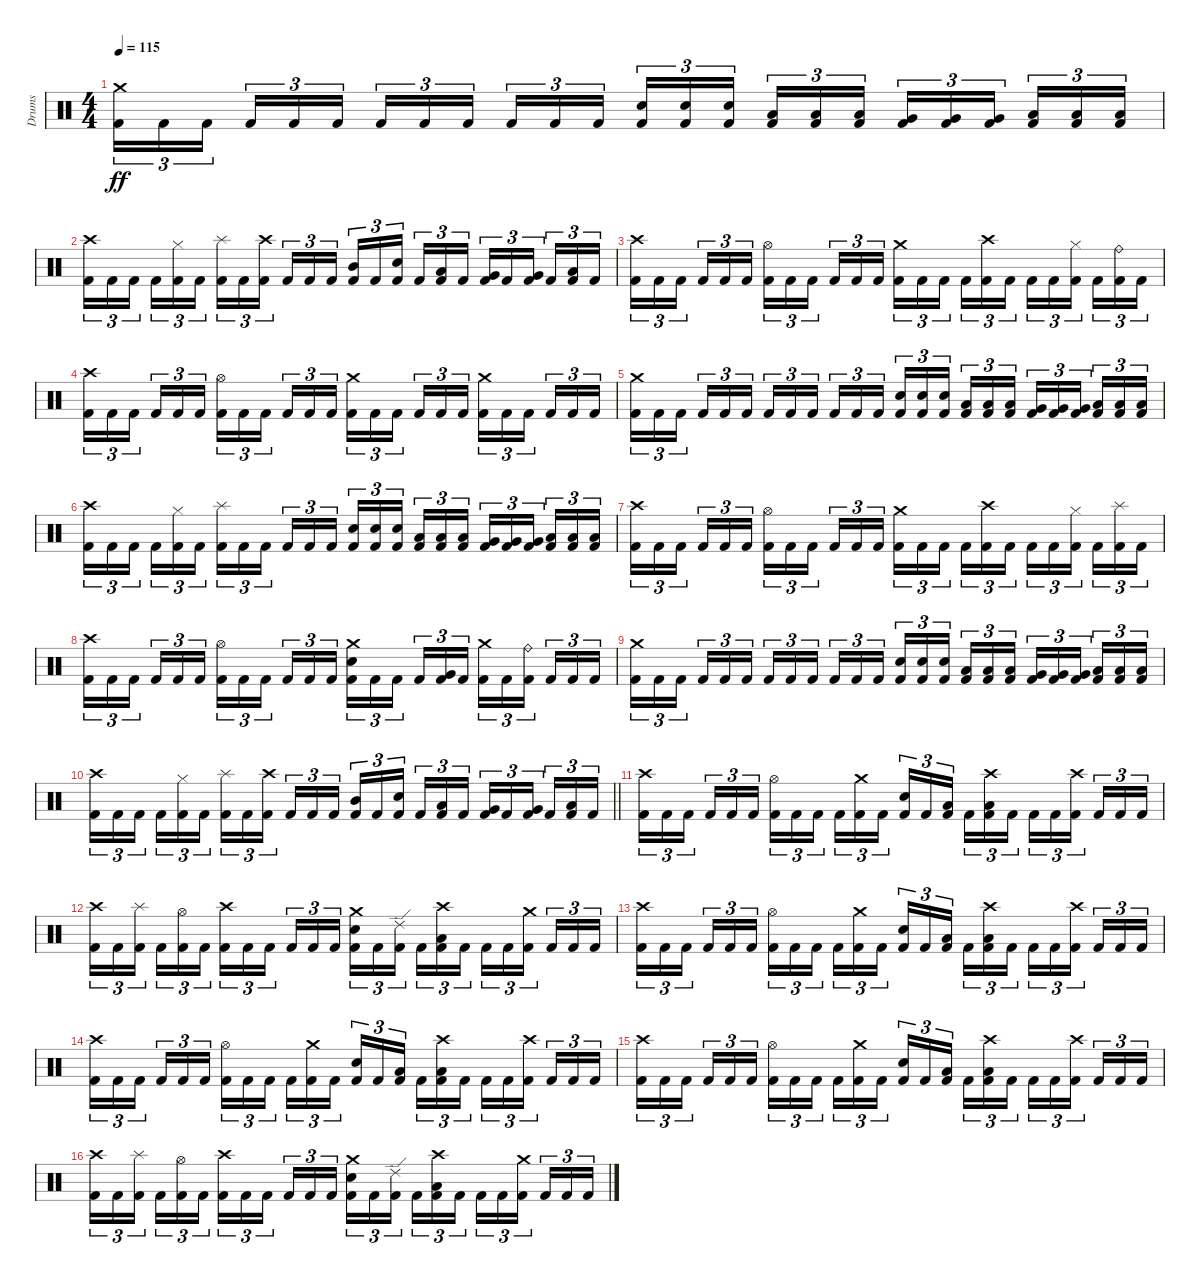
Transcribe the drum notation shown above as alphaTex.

\track ("Drums" "Drums") {instrument percussion}
\staff {score}
\articulation defaults
\ts (4 4)
\tempo 115
\clef neutral
\ks c
("Crash medium (hit)" "Kick (hit) 2").16{tu (3 2) dy ff} "Kick (hit) 2".16{tu (3 2)} "Kick (hit) 2".16{tu (3 2) beam splitsecondary} "Kick (hit) 2".16{tu (3 2)} "Kick (hit) 2".16{tu (3 2)} "Kick (hit) 2".16{tu (3 2)} "Kick (hit) 2".16{tu (3 2)} "Kick (hit) 2".16{tu (3 2)} "Kick (hit) 2".16{tu (3 2) beam splitsecondary} "Kick (hit) 2".16{tu (3 2)} "Kick (hit) 2".16{tu (3 2)} "Kick (hit) 2".16{tu (3 2)} ("Snare (hit) 2" "Kick (hit) 2").16{tu (3 2)} ("Snare (hit) 2" "Kick (hit) 2").16{tu (3 2)} ("Snare (hit) 2" "Kick (hit) 2").16{tu (3 2) beam splitsecondary} ("Low Tom (hit)" "Kick (hit) 2").16{tu (3 2)} ("Low Tom (hit)" "Kick (hit) 2").16{tu (3 2)} ("Low Tom (hit)" "Kick (hit) 2").16{tu (3 2)} ("Very Low Tom (hit)" "Kick (hit) 2").16{tu (3 2)} ("Very Low Tom (hit)" "Kick (hit) 2").16{tu (3 2)} ("Very Low Tom (hit)" "Kick (hit) 2").16{tu (3 2) beam splitsecondary} ("Low Floor Tom (hit)" "Kick (hit) 2").16{tu (3 2)} ("Low Floor Tom (hit)" "Kick (hit) 2").16{tu (3 2)} ("Low Floor Tom (hit)" "Kick (hit) 2").16{tu (3 2)} |
("Crash high (hit)" "Kick (hit) 2").16{tu (3 2)} "Kick (hit) 2".16{tu (3 2)} "Kick (hit) 2".16{tu (3 2) beam splitsecondary} "Kick (hit) 2".16{tu (3 2)} ("Hi-Hat (closed)" "Kick (hit) 2").16{tu (3 2)} "Kick (hit) 2".16{tu (3 2)} ("Splash (hit)" "Kick (hit) 2").16{tu (3 2)} "Kick (hit) 2".16{tu (3 2)} ("Crash high (hit)" "Kick (hit) 2").16{tu (3 2) beam splitsecondary} "Kick (hit) 2".16{tu (3 2)} "Kick (hit) 2".16{tu (3 2)} "Kick (hit) 2".16{tu (3 2)} ("Mid Tom (hit)" "Kick (hit) 2").16{tu (3 2)} "Kick (hit) 2".16{tu (3 2)} ("Snare (hit) 2" "Kick (hit) 2").16{tu (3 2) beam splitsecondary} "Kick (hit) 2".16{tu (3 2)} ("Low Tom (hit)" "Kick (hit) 2").16{tu (3 2)} "Kick (hit) 2".16{tu (3 2)} ("Very Low Tom (hit)" "Kick (hit) 2").16{tu (3 2)} "Kick (hit) 2".16{tu (3 2)} ("Very Low Tom (hit)" "Kick (hit) 2").16{tu (3 2) beam splitsecondary} "Kick (hit) 2".16{tu (3 2)} ("Low Floor Tom (hit)" "Kick (hit) 2").16{tu (3 2)} "Kick (hit) 2".16{tu (3 2)} |
("Crash high (hit)" "Kick (hit) 2").16{tu (3 2)} "Kick (hit) 2".16{tu (3 2)} "Kick (hit) 2".16{tu (3 2) beam splitsecondary} "Kick (hit) 2".16{tu (3 2)} "Kick (hit) 2".16{tu (3 2)} "Kick (hit) 2".16{tu (3 2)} ("Hi-Hat (open)" "Kick (hit) 2").16{tu (3 2)} "Kick (hit) 2".16{tu (3 2)} "Kick (hit) 2".16{tu (3 2) beam splitsecondary} "Kick (hit) 2".16{tu (3 2)} "Kick (hit) 2".16{tu (3 2)} "Kick (hit) 2".16{tu (3 2)} ("Crash medium (hit)" "Kick (hit) 2").16{tu (3 2)} "Kick (hit) 2".16{tu (3 2)} "Kick (hit) 2".16{tu (3 2) beam splitsecondary} "Kick (hit) 2".16{tu (3 2)} ("Crash high (hit)" "Kick (hit) 2").16{tu (3 2)} "Kick (hit) 2".16{tu (3 2)} "Kick (hit) 2".16{tu (3 2)} "Kick (hit) 2".16{tu (3 2)} ("Hi-Hat (closed)" "Kick (hit) 2").16{tu (3 2) beam splitsecondary} "Kick (hit) 2".16{tu (3 2)} ("Ride (bell)" "Kick (hit) 2").16{tu (3 2)} "Kick (hit) 2".16{tu (3 2)} |
("Crash high (hit)" "Kick (hit) 2").16{tu (3 2)} "Kick (hit) 2".16{tu (3 2)} "Kick (hit) 2".16{tu (3 2) beam splitsecondary} "Kick (hit) 2".16{tu (3 2)} "Kick (hit) 2".16{tu (3 2)} "Kick (hit) 2".16{tu (3 2)} ("Hi-Hat (open)" "Kick (hit) 2").16{tu (3 2)} "Kick (hit) 2".16{tu (3 2)} "Kick (hit) 2".16{tu (3 2) beam splitsecondary} "Kick (hit) 2".16{tu (3 2)} "Kick (hit) 2".16{tu (3 2)} "Kick (hit) 2".16{tu (3 2)} ("Crash medium (hit)" "Kick (hit) 2").16{tu (3 2)} "Kick (hit) 2".16{tu (3 2)} "Kick (hit) 2".16{tu (3 2) beam splitsecondary} "Kick (hit) 2".16{tu (3 2)} "Kick (hit) 2".16{tu (3 2)} "Kick (hit) 2".16{tu (3 2)} ("Crash medium (hit)" "Kick (hit) 2").16{tu (3 2)} "Kick (hit) 2".16{tu (3 2)} "Kick (hit) 2".16{tu (3 2) beam splitsecondary} "Kick (hit) 2".16{tu (3 2)} "Kick (hit) 2".16{tu (3 2)} "Kick (hit) 2".16{tu (3 2)} |
("Crash medium (hit)" "Kick (hit) 2").16{tu (3 2)} "Kick (hit) 2".16{tu (3 2)} "Kick (hit) 2".16{tu (3 2) beam splitsecondary} "Kick (hit) 2".16{tu (3 2)} "Kick (hit) 2".16{tu (3 2)} "Kick (hit) 2".16{tu (3 2)} "Kick (hit) 2".16{tu (3 2)} "Kick (hit) 2".16{tu (3 2)} "Kick (hit) 2".16{tu (3 2) beam splitsecondary} "Kick (hit) 2".16{tu (3 2)} "Kick (hit) 2".16{tu (3 2)} "Kick (hit) 2".16{tu (3 2)} ("Snare (hit) 2" "Kick (hit) 2").16{tu (3 2)} ("Snare (hit) 2" "Kick (hit) 2").16{tu (3 2)} ("Snare (hit) 2" "Kick (hit) 2").16{tu (3 2) beam splitsecondary} ("Low Tom (hit)" "Kick (hit) 2").16{tu (3 2)} ("Low Tom (hit)" "Kick (hit) 2").16{tu (3 2)} ("Low Tom (hit)" "Kick (hit) 2").16{tu (3 2)} ("Very Low Tom (hit)" "Kick (hit) 2").16{tu (3 2)} ("Very Low Tom (hit)" "Kick (hit) 2").16{tu (3 2)} ("Very Low Tom (hit)" "Kick (hit) 2").16{tu (3 2) beam splitsecondary} ("Low Floor Tom (hit)" "Kick (hit) 2").16{tu (3 2)} ("Low Floor Tom (hit)" "Kick (hit) 2").16{tu (3 2)} ("Low Floor Tom (hit)" "Kick (hit) 2").16{tu (3 2)} |
("Crash high (hit)" "Kick (hit) 2").16{tu (3 2)} "Kick (hit) 2".16{tu (3 2)} "Kick (hit) 2".16{tu (3 2) beam splitsecondary} "Kick (hit) 2".16{tu (3 2)} ("Hi-Hat (closed)" "Kick (hit) 2").16{tu (3 2)} "Kick (hit) 2".16{tu (3 2)} ("Splash (hit)" "Kick (hit) 2").16{tu (3 2)} "Kick (hit) 2".16{tu (3 2)} "Kick (hit) 2".16{tu (3 2) beam splitsecondary} "Kick (hit) 2".16{tu (3 2)} "Kick (hit) 2".16{tu (3 2)} "Kick (hit) 2".16{tu (3 2)} ("Snare (hit) 2" "Kick (hit) 2").16{tu (3 2)} ("Snare (hit) 2" "Kick (hit) 2").16{tu (3 2)} ("Snare (hit) 2" "Kick (hit) 2").16{tu (3 2) beam splitsecondary} ("Low Tom (hit)" "Kick (hit) 2").16{tu (3 2)} ("Low Tom (hit)" "Kick (hit) 2").16{tu (3 2)} ("Low Tom (hit)" "Kick (hit) 2").16{tu (3 2)} ("Very Low Tom (hit)" "Kick (hit) 2").16{tu (3 2)} ("Very Low Tom (hit)" "Kick (hit) 2").16{tu (3 2)} ("Very Low Tom (hit)" "Kick (hit) 2").16{tu (3 2) beam splitsecondary} ("Low Floor Tom (hit)" "Kick (hit) 2").16{tu (3 2)} ("Low Floor Tom (hit)" "Kick (hit) 2").16{tu (3 2)} ("Low Floor Tom (hit)" "Kick (hit) 2").16{tu (3 2)} |
("Crash high (hit)" "Kick (hit) 2").16{tu (3 2)} "Kick (hit) 2".16{tu (3 2)} "Kick (hit) 2".16{tu (3 2) beam splitsecondary} "Kick (hit) 2".16{tu (3 2)} "Kick (hit) 2".16{tu (3 2)} "Kick (hit) 2".16{tu (3 2)} ("Hi-Hat (open)" "Kick (hit) 2").16{tu (3 2)} "Kick (hit) 2".16{tu (3 2)} "Kick (hit) 2".16{tu (3 2) beam splitsecondary} "Kick (hit) 2".16{tu (3 2)} "Kick (hit) 2".16{tu (3 2)} "Kick (hit) 2".16{tu (3 2)} ("Crash medium (hit)" "Kick (hit) 2").16{tu (3 2)} "Kick (hit) 2".16{tu (3 2)} "Kick (hit) 2".16{tu (3 2) beam splitsecondary} "Kick (hit) 2".16{tu (3 2)} ("Crash high (hit)" "Kick (hit) 2").16{tu (3 2)} "Kick (hit) 2".16{tu (3 2)} "Kick (hit) 2".16{tu (3 2)} "Kick (hit) 2".16{tu (3 2)} ("Hi-Hat (closed)" "Kick (hit) 2").16{tu (3 2) beam splitsecondary} "Kick (hit) 2".16{tu (3 2)} ("Splash (hit)" "Kick (hit) 2").16{tu (3 2)} "Kick (hit) 2".16{tu (3 2)} |
("Crash high (hit)" "Kick (hit) 2").16{tu (3 2)} "Kick (hit) 2".16{tu (3 2)} "Kick (hit) 2".16{tu (3 2) beam splitsecondary} "Kick (hit) 2".16{tu (3 2)} "Kick (hit) 2".16{tu (3 2)} "Kick (hit) 2".16{tu (3 2)} ("Hi-Hat (open)" "Kick (hit) 2").16{tu (3 2)} "Kick (hit) 2".16{tu (3 2)} "Kick (hit) 2".16{tu (3 2) beam splitsecondary} "Kick (hit) 2".16{tu (3 2)} "Kick (hit) 2".16{tu (3 2)} "Kick (hit) 2".16{tu (3 2)} ("Crash medium (hit)" "Snare (hit) 2" "Kick (hit) 2").16{tu (3 2)} "Kick (hit) 2".16{tu (3 2)} "Kick (hit) 2".16{tu (3 2) beam splitsecondary} "Kick (hit) 2".16{tu (3 2)} ("Very Low Tom (hit)" "Kick (hit) 2").16{tu (3 2)} "Kick (hit) 2".16{tu (3 2)} ("Crash medium (hit)" "Kick (hit) 2").16{tu (3 2)} "Kick (hit) 2".16{tu (3 2)} ("Ride (bell)" "Kick (hit) 2").16{tu (3 2) beam splitsecondary} "Kick (hit) 2".16{tu (3 2)} "Kick (hit) 2".16{tu (3 2)} "Kick (hit) 2".16{tu (3 2)} |
("Crash medium (hit)" "Kick (hit) 2").16{tu (3 2)} "Kick (hit) 2".16{tu (3 2)} "Kick (hit) 2".16{tu (3 2) beam splitsecondary} "Kick (hit) 2".16{tu (3 2)} "Kick (hit) 2".16{tu (3 2)} "Kick (hit) 2".16{tu (3 2)} "Kick (hit) 2".16{tu (3 2)} "Kick (hit) 2".16{tu (3 2)} "Kick (hit) 2".16{tu (3 2) beam splitsecondary} "Kick (hit) 2".16{tu (3 2)} "Kick (hit) 2".16{tu (3 2)} "Kick (hit) 2".16{tu (3 2)} ("Snare (hit) 2" "Kick (hit) 2").16{tu (3 2)} ("Snare (hit) 2" "Kick (hit) 2").16{tu (3 2)} ("Snare (hit) 2" "Kick (hit) 2").16{tu (3 2) beam splitsecondary} ("Low Tom (hit)" "Kick (hit) 2").16{tu (3 2)} ("Low Tom (hit)" "Kick (hit) 2").16{tu (3 2)} ("Low Tom (hit)" "Kick (hit) 2").16{tu (3 2)} ("Very Low Tom (hit)" "Kick (hit) 2").16{tu (3 2)} ("Very Low Tom (hit)" "Kick (hit) 2").16{tu (3 2)} ("Very Low Tom (hit)" "Kick (hit) 2").16{tu (3 2) beam splitsecondary} ("Low Floor Tom (hit)" "Kick (hit) 2").16{tu (3 2)} ("Low Floor Tom (hit)" "Kick (hit) 2").16{tu (3 2)} ("Low Floor Tom (hit)" "Kick (hit) 2").16{tu (3 2)} |
\barLineRight lightlight
("Crash high (hit)" "Kick (hit) 2").16{tu (3 2)} "Kick (hit) 2".16{tu (3 2)} "Kick (hit) 2".16{tu (3 2) beam splitsecondary} "Kick (hit) 2".16{tu (3 2)} ("Hi-Hat (closed)" "Kick (hit) 2").16{tu (3 2)} "Kick (hit) 2".16{tu (3 2)} ("Splash (hit)" "Kick (hit) 2").16{tu (3 2)} "Kick (hit) 2".16{tu (3 2)} ("Crash high (hit)" "Kick (hit) 2").16{tu (3 2) beam splitsecondary} "Kick (hit) 2".16{tu (3 2)} "Kick (hit) 2".16{tu (3 2)} "Kick (hit) 2".16{tu (3 2)} ("Mid Tom (hit)" "Kick (hit) 2").16{tu (3 2)} "Kick (hit) 2".16{tu (3 2)} ("Snare (hit) 2" "Kick (hit) 2").16{tu (3 2) beam splitsecondary} "Kick (hit) 2".16{tu (3 2)} ("Low Tom (hit)" "Kick (hit) 2").16{tu (3 2)} "Kick (hit) 2".16{tu (3 2)} ("Very Low Tom (hit)" "Kick (hit) 2").16{tu (3 2)} "Kick (hit) 2".16{tu (3 2)} ("Very Low Tom (hit)" "Kick (hit) 2").16{tu (3 2) beam splitsecondary} "Kick (hit) 2".16{tu (3 2)} ("Low Floor Tom (hit)" "Kick (hit) 2").16{tu (3 2)} "Kick (hit) 2".16{tu (3 2)} |
\section ("" "")
("Crash high (hit)" "Kick (hit) 2").16{tu (3 2)} "Kick (hit) 2".16{tu (3 2)} "Kick (hit) 2".16{tu (3 2) beam splitsecondary} "Kick (hit) 2".16{tu (3 2)} "Kick (hit) 2".16{tu (3 2)} "Kick (hit) 2".16{tu (3 2)} ("Hi-Hat (open)" "Kick (hit) 2").16{tu (3 2)} "Kick (hit) 2".16{tu (3 2)} "Kick (hit) 2".16{tu (3 2) beam splitsecondary} "Kick (hit) 2".16{tu (3 2)} ("Crash medium (hit)" "Kick (hit) 2").16{tu (3 2)} "Kick (hit) 2".16{tu (3 2)} ("Snare (hit) 2" "Kick (hit) 2").16{tu (3 2)} "Kick (hit) 2".16{tu (3 2)} ("Low Tom (hit)" "Kick (hit) 2").16{tu (3 2) beam splitsecondary} "Kick (hit) 2".16{tu (3 2)} ("Crash high (hit)" "Low Tom (hit)" "Kick (hit) 2").16{tu (3 2)} "Kick (hit) 2".16{tu (3 2)} "Kick (hit) 2".16{tu (3 2)} "Kick (hit) 2".16{tu (3 2)} ("Crash high (hit)" "Kick (hit) 2").16{tu (3 2) beam splitsecondary} "Kick (hit) 2".16{tu (3 2)} "Kick (hit) 2".16{tu (3 2)} "Kick (hit) 2".16{tu (3 2)} |
("Crash high (hit)" "Kick (hit) 2").16{tu (3 2)} "Kick (hit) 2".16{tu (3 2)} ("Splash (hit)" "Kick (hit) 2").16{tu (3 2) beam splitsecondary} "Kick (hit) 2".16{tu (3 2)} ("Hi-Hat (open)" "Kick (hit) 2").16{tu (3 2)} "Kick (hit) 2".16{tu (3 2)} ("Crash high (hit)" "Kick (hit) 2").16{tu (3 2)} "Kick (hit) 2".16{tu (3 2)} "Kick (hit) 2".16{tu (3 2) beam splitsecondary} "Kick (hit) 2".16{tu (3 2)} "Kick (hit) 2".16{tu (3 2)} "Kick (hit) 2".16{tu (3 2)} ("Crash medium (hit)" "Snare (hit) 2" "Kick (hit) 2").16{tu (3 2)} "Kick (hit) 2".16{tu (3 2)} ("Ride (edge) 2" "Kick (hit) 2").16{tu (3 2) beam splitsecondary} "Kick (hit) 2".16{tu (3 2)} ("Crash high (hit)" "Low Tom (hit)" "Kick (hit) 2").16{tu (3 2)} "Kick (hit) 2".16{tu (3 2)} "Kick (hit) 2".16{tu (3 2)} "Kick (hit) 2".16{tu (3 2)} ("Crash medium (hit)" "Kick (hit) 2").16{tu (3 2) beam splitsecondary} "Kick (hit) 2".16{tu (3 2)} "Kick (hit) 2".16{tu (3 2)} "Kick (hit) 2".16{tu (3 2)} |
("Crash high (hit)" "Kick (hit) 2").16{tu (3 2)} "Kick (hit) 2".16{tu (3 2)} "Kick (hit) 2".16{tu (3 2) beam splitsecondary} "Kick (hit) 2".16{tu (3 2)} "Kick (hit) 2".16{tu (3 2)} "Kick (hit) 2".16{tu (3 2)} ("Hi-Hat (open)" "Kick (hit) 2").16{tu (3 2)} "Kick (hit) 2".16{tu (3 2)} "Kick (hit) 2".16{tu (3 2) beam splitsecondary} "Kick (hit) 2".16{tu (3 2)} ("Crash medium (hit)" "Kick (hit) 2").16{tu (3 2)} "Kick (hit) 2".16{tu (3 2)} ("Snare (hit) 2" "Kick (hit) 2").16{tu (3 2)} "Kick (hit) 2".16{tu (3 2)} ("Low Tom (hit)" "Kick (hit) 2").16{tu (3 2) beam splitsecondary} "Kick (hit) 2".16{tu (3 2)} ("Crash high (hit)" "Low Tom (hit)" "Kick (hit) 2").16{tu (3 2)} "Kick (hit) 2".16{tu (3 2)} "Kick (hit) 2".16{tu (3 2)} "Kick (hit) 2".16{tu (3 2)} ("Crash high (hit)" "Kick (hit) 2").16{tu (3 2) beam splitsecondary} "Kick (hit) 2".16{tu (3 2)} "Kick (hit) 2".16{tu (3 2)} "Kick (hit) 2".16{tu (3 2)} |
("Crash high (hit)" "Kick (hit) 2").16{tu (3 2)} "Kick (hit) 2".16{tu (3 2)} "Kick (hit) 2".16{tu (3 2) beam splitsecondary} "Kick (hit) 2".16{tu (3 2)} "Kick (hit) 2".16{tu (3 2)} "Kick (hit) 2".16{tu (3 2)} ("Hi-Hat (open)" "Kick (hit) 2").16{tu (3 2)} "Kick (hit) 2".16{tu (3 2)} "Kick (hit) 2".16{tu (3 2) beam splitsecondary} "Kick (hit) 2".16{tu (3 2)} ("Crash medium (hit)" "Kick (hit) 2").16{tu (3 2)} "Kick (hit) 2".16{tu (3 2)} ("Snare (hit) 2" "Kick (hit) 2").16{tu (3 2)} "Kick (hit) 2".16{tu (3 2)} ("Low Tom (hit)" "Kick (hit) 2").16{tu (3 2) beam splitsecondary} "Kick (hit) 2".16{tu (3 2)} ("Crash high (hit)" "Low Tom (hit)" "Kick (hit) 2").16{tu (3 2)} "Kick (hit) 2".16{tu (3 2)} "Kick (hit) 2".16{tu (3 2)} "Kick (hit) 2".16{tu (3 2)} ("Crash high (hit)" "Kick (hit) 2").16{tu (3 2) beam splitsecondary} "Kick (hit) 2".16{tu (3 2)} "Kick (hit) 2".16{tu (3 2)} "Kick (hit) 2".16{tu (3 2)} |
("Crash high (hit)" "Kick (hit) 2").16{tu (3 2)} "Kick (hit) 2".16{tu (3 2)} "Kick (hit) 2".16{tu (3 2) beam splitsecondary} "Kick (hit) 2".16{tu (3 2)} "Kick (hit) 2".16{tu (3 2)} "Kick (hit) 2".16{tu (3 2)} ("Hi-Hat (open)" "Kick (hit) 2").16{tu (3 2)} "Kick (hit) 2".16{tu (3 2)} "Kick (hit) 2".16{tu (3 2) beam splitsecondary} "Kick (hit) 2".16{tu (3 2)} ("Crash medium (hit)" "Kick (hit) 2").16{tu (3 2)} "Kick (hit) 2".16{tu (3 2)} ("Snare (hit) 2" "Kick (hit) 2").16{tu (3 2)} "Kick (hit) 2".16{tu (3 2)} ("Low Tom (hit)" "Kick (hit) 2").16{tu (3 2) beam splitsecondary} "Kick (hit) 2".16{tu (3 2)} ("Crash high (hit)" "Low Tom (hit)" "Kick (hit) 2").16{tu (3 2)} "Kick (hit) 2".16{tu (3 2)} "Kick (hit) 2".16{tu (3 2)} "Kick (hit) 2".16{tu (3 2)} ("Crash high (hit)" "Kick (hit) 2").16{tu (3 2) beam splitsecondary} "Kick (hit) 2".16{tu (3 2)} "Kick (hit) 2".16{tu (3 2)} "Kick (hit) 2".16{tu (3 2)} |
("Crash high (hit)" "Kick (hit) 2").16{tu (3 2)} "Kick (hit) 2".16{tu (3 2)} ("Splash (hit)" "Kick (hit) 2").16{tu (3 2) beam splitsecondary} "Kick (hit) 2".16{tu (3 2)} ("Hi-Hat (open)" "Kick (hit) 2").16{tu (3 2)} "Kick (hit) 2".16{tu (3 2)} ("Crash high (hit)" "Kick (hit) 2").16{tu (3 2)} "Kick (hit) 2".16{tu (3 2)} "Kick (hit) 2".16{tu (3 2) beam splitsecondary} "Kick (hit) 2".16{tu (3 2)} "Kick (hit) 2".16{tu (3 2)} "Kick (hit) 2".16{tu (3 2)} ("Crash medium (hit)" "Snare (hit) 2" "Kick (hit) 2").16{tu (3 2)} "Kick (hit) 2".16{tu (3 2)} ("Ride (edge) 2" "Kick (hit) 2").16{tu (3 2) beam splitsecondary} "Kick (hit) 2".16{tu (3 2)} ("Crash high (hit)" "Low Tom (hit)" "Kick (hit) 2").16{tu (3 2)} "Kick (hit) 2".16{tu (3 2)} "Kick (hit) 2".16{tu (3 2)} "Kick (hit) 2".16{tu (3 2)} ("Crash medium (hit)" "Kick (hit) 2").16{tu (3 2) beam splitsecondary} "Kick (hit) 2".16{tu (3 2)} "Kick (hit) 2".16{tu (3 2)} "Kick (hit) 2".16{tu (3 2)}
